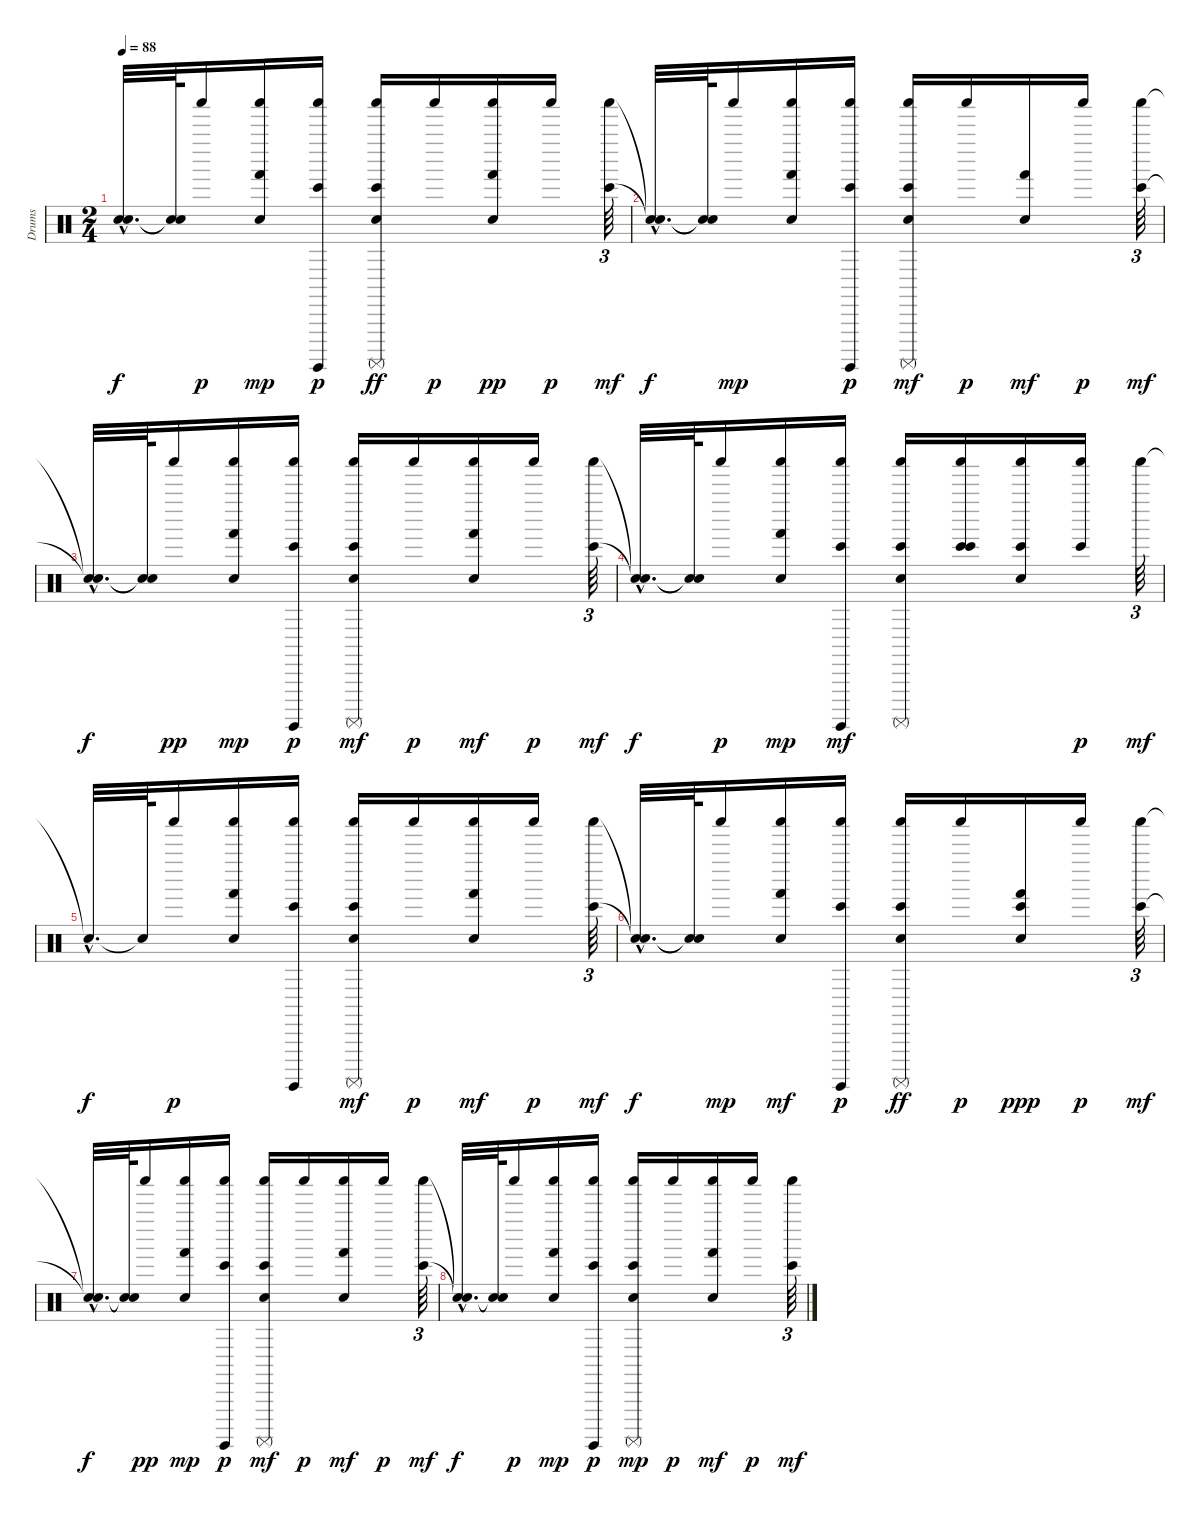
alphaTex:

\track ("Drums" "Drums") {instrument percussion}
\staff {score}
\articulation defaults
\ts (2 4)
\tempo 88
\clef neutral
\ks c
("Snare (hit)"{hac t} "Snare (hit)"{hac t}).32{d dy f} ("Snare (hit)"{t} "Snare (hit)"{t}).64 "Shaker (hit)".16{dy p} ("Shaker (hit)" "Hand Clap (hit)" "Hand (hit)").16{dy mp} ("Bongo High (hit)" "Shaker (hit)" "Surdo (hit)").16{dy p} ("Hand Clap (hit)" "Shaker (hit)" "Bongo High (hit)" "Surdo (mute)").16{dy ff} "Shaker (hit)".16{dy p} ("Hand (hit)" "Hand Clap (hit)" "Shaker (hit)").16{dy pp} "Shaker (hit)".16{dy p} ("Bongo High (hit)" "Shaker (hit)").64{tu (3 2) dy mf} |
("Snare (hit)"{hac t} "Snare (hit)"{hac t}).32{d dy f} ("Snare (hit)"{t} "Snare (hit)"{t}).64 "Shaker (hit)".16{dy mp} ("Hand Clap (hit)" "Shaker (hit)" "Hand (hit)").16 ("Shaker (hit)" "Bongo High (hit)" "Surdo (hit)").16{dy p} ("Hand Clap (hit)" "Shaker (hit)" "Surdo (mute)" "Bongo High (hit)").16{dy mf} "Shaker (hit)".16{dy p} ("Hand Clap (hit)" "Hand (hit)").16{dy mf} "Shaker (hit)".16{dy p} ("Shaker (hit)" "Bongo High (hit)").64{tu (3 2) dy mf} |
("Snare (hit)"{hac t} "Snare (hit)"{hac t}).32{d dy f} ("Snare (hit)"{t} "Snare (hit)"{t}).64 "Shaker (hit)".16{dy pp} ("Hand Clap (hit)" "Shaker (hit)" "Hand (hit)").16{dy mp} ("Shaker (hit)" "Bongo High (hit)" "Surdo (hit)").16{dy p} ("Hand Clap (hit)" "Shaker (hit)" "Surdo (mute)" "Bongo High (hit)").16{dy mf} "Shaker (hit)".16{dy p} ("Shaker (hit)" "Hand Clap (hit)" "Hand (hit)").16{dy mf} "Shaker (hit)".16{dy p} ("Shaker (hit)" "Bongo High (hit)").64{tu (3 2) dy mf} |
("Snare (hit)"{hac t} "Snare (hit)"{hac t}).32{d dy f} ("Snare (hit)"{t} "Snare (hit)"{t}).64 "Shaker (hit)".16{dy p} ("Shaker (hit)" "Hand Clap (hit)" "Hand (hit)").16{dy mp} ("Surdo (hit)" "Shaker (hit)" "Bongo High (hit)").16{dy mf} ("Hand Clap (hit)" "Shaker (hit)" "Surdo (mute)" "Bongo High (hit)").16 ("Bongo High (hit)" "Shaker (hit)" "Bongo High (hit)").16 ("Shaker (hit)" "Bongo High (hit)" "Hand Clap (hit)").16 ("Bongo High (hit)" "Shaker (hit)").16{dy p} "Shaker (hit)".64{tu (3 2) dy mf} |
"Snare (hit)"{hac t}.32{d dy f} "Snare (hit)"{t}.64 "Shaker (hit)".16{dy p} ("Shaker (hit)" "Hand (hit)" "Hand Clap (hit)").16 ("Bongo High (hit)" "Surdo (hit)" "Shaker (hit)").16 ("Shaker (hit)" "Surdo (mute)" "Hand Clap (hit)" "Bongo High (hit)").16{dy mf} "Shaker (hit)".16{dy p} ("Hand (hit)" "Shaker (hit)" "Hand Clap (hit)").16{dy mf} "Shaker (hit)".16{dy p} ("Bongo High (hit)" "Shaker (hit)").64{tu (3 2) dy mf} |
("Snare (hit)"{hac t} "Snare (hit)"{hac t}).32{d dy f} ("Snare (hit)"{t} "Snare (hit)"{t}).64 "Shaker (hit)".16{dy mp} ("Hand Clap (hit)" "Shaker (hit)" "Hand (hit)").16{dy mf} ("Shaker (hit)" "Bongo High (hit)" "Surdo (hit)").16{dy p} ("Shaker (hit)" "Hand Clap (hit)" "Bongo High (hit)" "Surdo (mute)").16{dy ff} "Shaker (hit)".16{dy p} ("Hand (hit)" "Hand Clap (hit)" "Bongo High (hit)").16{dy ppp} "Shaker (hit)".16{dy p} ("Shaker (hit)" "Bongo High (hit)").64{tu (3 2) dy mf} |
("Snare (hit)"{hac t} "Snare (hit)"{hac t}).32{d dy f} ("Snare (hit)"{t} "Snare (hit)"{t}).64 "Shaker (hit)".16{dy pp} ("Shaker (hit)" "Hand Clap (hit)" "Hand (hit)").16{dy mp} ("Surdo (hit)" "Bongo High (hit)" "Shaker (hit)").16{dy p} ("Hand Clap (hit)" "Shaker (hit)" "Surdo (mute)" "Bongo High (hit)").16{dy mf} "Shaker (hit)".16{dy p} ("Hand Clap (hit)" "Shaker (hit)" "Hand (hit)").16{dy mf} "Shaker (hit)".16{dy p} ("Shaker (hit)" "Bongo High (hit)").64{tu (3 2) dy mf} |
("Snare (hit)"{hac t} "Snare (hit)"{hac t}).32{d dy f} ("Snare (hit)"{t} "Snare (hit)"{t}).64 "Shaker (hit)".16{dy p} ("Shaker (hit)" "Hand Clap (hit)" "Hand (hit)").16{dy mp} ("Shaker (hit)" "Bongo High (hit)" "Surdo (hit)").16{dy p} ("Shaker (hit)" "Hand Clap (hit)" "Surdo (mute)" "Bongo High (hit)").16{dy mp} "Shaker (hit)".16{dy p} ("Shaker (hit)" "Hand (hit)" "Hand Clap (hit)").16{dy mf} "Shaker (hit)".16{dy p} ("Bongo High (hit)" "Shaker (hit)").64{tu (3 2) dy mf}
